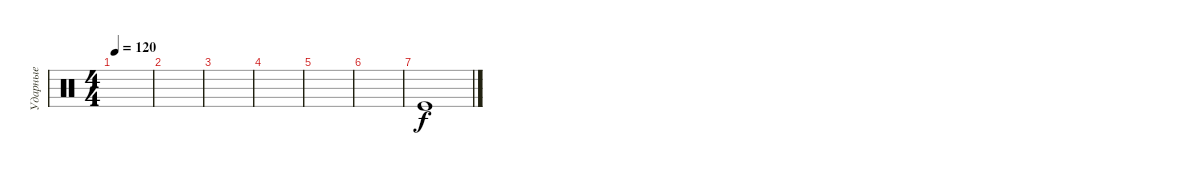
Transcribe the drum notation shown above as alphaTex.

\track ("Ударные" "Ударные") {instrument percussion}
\staff {score}
\articulation defaults
\ts (4 4)
\tempo 120
\clef neutral
\ks c
|
|
|
|
|
|
"Kick (hit)".1
